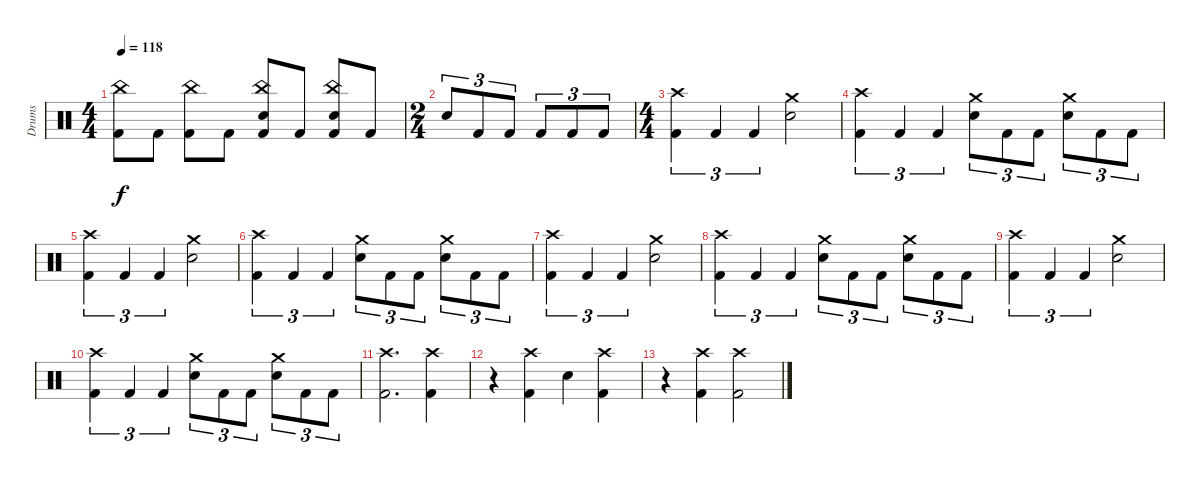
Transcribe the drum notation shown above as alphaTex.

\track ("Drums" "Drums") {instrument percussion}
\staff {score}
\articulation defaults
\ts (4 4)
\tempo 118
\clef neutral
\ks c
("Kick (hit) 2" "China (hit)").8{dy f} "Kick (hit) 2".8 ("Kick (hit) 2" "China (hit)").8 "Kick (hit) 2".8 ("Kick (hit) 2" "Snare (hit) 2" "China (hit)").8 "Kick (hit) 2".8 ("Kick (hit) 2" "Snare (hit) 2" "China (hit)").8 "Kick (hit) 2".8 |
\ts (2 4)
"Snare (hit) 2".8{tu (3 2)} "Kick (hit) 2".8{tu (3 2)} "Kick (hit) 2".8{tu (3 2)} "Kick (hit) 2".8{tu (3 2)} "Kick (hit) 2".8{tu (3 2)} "Kick (hit) 2".8{tu (3 2)} |
\ts (4 4)
("Kick (hit) 2" "Crash high (hit)").4{tu (3 2)} "Kick (hit) 2".4{tu (3 2)} "Kick (hit) 2".4{tu (3 2)} ("Snare (hit) 2" "Crash medium (hit)").2 |
("Kick (hit) 2" "Crash high (hit)").4{tu (3 2)} "Kick (hit) 2".4{tu (3 2)} "Kick (hit) 2".4{tu (3 2)} ("Snare (hit) 2" "Crash medium (hit)").8{tu (3 2)} "Kick (hit) 2".8{tu (3 2)} "Kick (hit) 2".8{tu (3 2)} ("Snare (hit) 2" "Crash medium (hit)").8{tu (3 2)} "Kick (hit) 2".8{tu (3 2)} "Kick (hit) 2".8{tu (3 2)} |
("Kick (hit) 2" "Crash high (hit)").4{tu (3 2)} "Kick (hit) 2".4{tu (3 2)} "Kick (hit) 2".4{tu (3 2)} ("Snare (hit) 2" "Crash medium (hit)").2 |
("Kick (hit) 2" "Crash high (hit)").4{tu (3 2)} "Kick (hit) 2".4{tu (3 2)} "Kick (hit) 2".4{tu (3 2)} ("Snare (hit) 2" "Crash medium (hit)").8{tu (3 2)} "Kick (hit) 2".8{tu (3 2)} "Kick (hit) 2".8{tu (3 2)} ("Snare (hit) 2" "Crash medium (hit)").8{tu (3 2)} "Kick (hit) 2".8{tu (3 2)} "Kick (hit) 2".8{tu (3 2)} |
("Kick (hit) 2" "Crash high (hit)").4{tu (3 2)} "Kick (hit) 2".4{tu (3 2)} "Kick (hit) 2".4{tu (3 2)} ("Snare (hit) 2" "Crash medium (hit)").2 |
("Kick (hit) 2" "Crash high (hit)").4{tu (3 2)} "Kick (hit) 2".4{tu (3 2)} "Kick (hit) 2".4{tu (3 2)} ("Snare (hit) 2" "Crash medium (hit)").8{tu (3 2)} "Kick (hit) 2".8{tu (3 2)} "Kick (hit) 2".8{tu (3 2)} ("Snare (hit) 2" "Crash medium (hit)").8{tu (3 2)} "Kick (hit) 2".8{tu (3 2)} "Kick (hit) 2".8{tu (3 2)} |
("Kick (hit) 2" "Crash high (hit)").4{tu (3 2)} "Kick (hit) 2".4{tu (3 2)} "Kick (hit) 2".4{tu (3 2)} ("Snare (hit) 2" "Crash medium (hit)").2 |
("Kick (hit) 2" "Crash high (hit)").4{tu (3 2)} "Kick (hit) 2".4{tu (3 2)} "Kick (hit) 2".4{tu (3 2)} ("Snare (hit) 2" "Crash medium (hit)").8{tu (3 2)} "Kick (hit) 2".8{tu (3 2)} "Kick (hit) 2".8{tu (3 2)} ("Snare (hit) 2" "Crash medium (hit)").8{tu (3 2)} "Kick (hit) 2".8{tu (3 2)} "Kick (hit) 2".8{tu (3 2)} |
("Kick (hit) 2" "Crash high (hit)").2{d} ("Kick (hit) 2" "Crash high (hit)").4 |
r.4 ("Kick (hit) 2" "Crash high (hit)").4 "Snare (hit) 2".4 ("Kick (hit) 2" "Crash high (hit)").4 |
r.4 ("Kick (hit) 2" "Crash high (hit)").4 ("Kick (hit) 2" "Crash high (hit)").2
